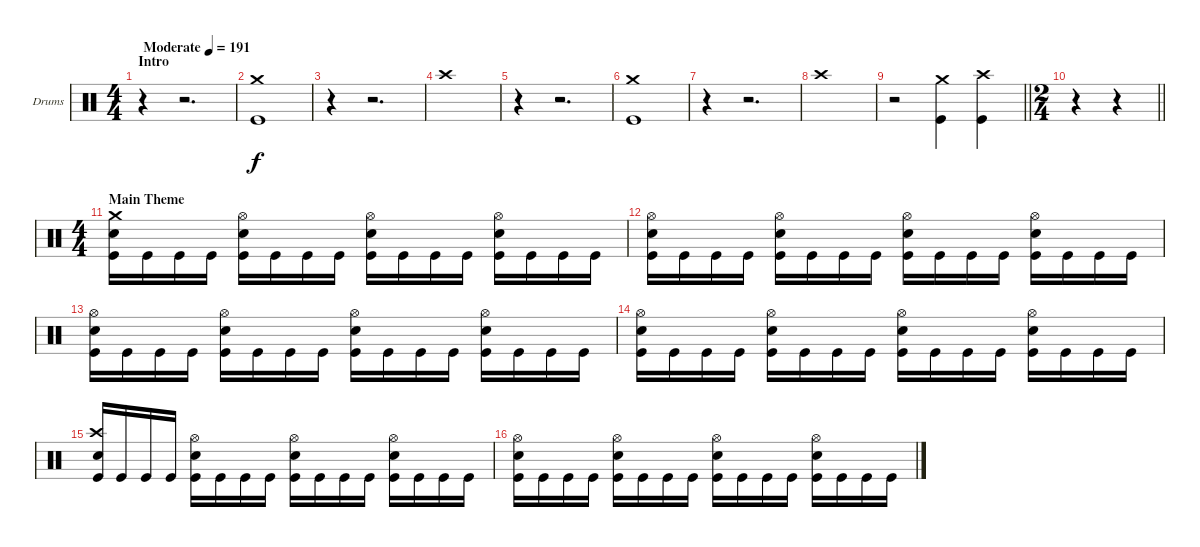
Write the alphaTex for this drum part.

\bracketExtendMode groupsimilarinstruments
\firstSystemTrackNameOrientation horizontal
\otherSystemsTrackNameOrientation horizontal
\track ("Drumkit" "Drums") {instrument percussion}
\staff {score}
\articulation defaults
\ts (4 4)
\beaming (8 2 2 2 2)
\section ("" "Intro")
\tempo (191 "Moderate")
\clef neutral
\ks c
r.4{dy f} r.2{d} |
("Crash medium (hit)" "Kick (hit)").1 |
r.4 r.2{d} |
"Crash high (hit)".1 |
r.4 r.2{d} |
("Crash medium (hit)" "Kick (hit)").1 |
r.4 r.2{d} |
"Crash high (hit)".1 |
\barLineRight lightlight
r.2 ("Crash medium (hit)" "Kick (hit)").4 ("Crash high (hit)" "Kick (hit)").4 |
\ts (2 4)
\beaming (8 2 2)
\barLineRight lightlight
r.4 r.4 |
\ts (4 4)
\beaming (8 2 2 2 2)
\section ("" "Main Theme")
("Crash medium (hit)" "Snare (hit) 2" "Kick (hit)").16 "Kick (hit)".16 "Kick (hit)".16 "Kick (hit)".16 ("Hi-Hat (open)" "Snare (hit) 2" "Kick (hit)").16 "Kick (hit)".16 "Kick (hit)".16 "Kick (hit)".16 ("Hi-Hat (open)" "Snare (hit) 2" "Kick (hit)").16 "Kick (hit)".16 "Kick (hit)".16 "Kick (hit)".16 ("Hi-Hat (open)" "Snare (hit) 2" "Kick (hit)").16 "Kick (hit)".16 "Kick (hit)".16 "Kick (hit)".16 |
("Hi-Hat (open)" "Snare (hit) 2" "Kick (hit)").16 "Kick (hit)".16 "Kick (hit)".16 "Kick (hit)".16 ("Hi-Hat (open)" "Snare (hit) 2" "Kick (hit)").16 "Kick (hit)".16 "Kick (hit)".16 "Kick (hit)".16 ("Hi-Hat (open)" "Snare (hit) 2" "Kick (hit)").16 "Kick (hit)".16 "Kick (hit)".16 "Kick (hit)".16 ("Hi-Hat (open)" "Snare (hit) 2" "Kick (hit)").16 "Kick (hit)".16 "Kick (hit)".16 "Kick (hit)".16 |
("Hi-Hat (open)" "Snare (hit) 2" "Kick (hit)").16 "Kick (hit)".16 "Kick (hit)".16 "Kick (hit)".16 ("Hi-Hat (open)" "Snare (hit) 2" "Kick (hit)").16 "Kick (hit)".16 "Kick (hit)".16 "Kick (hit)".16 ("Hi-Hat (open)" "Snare (hit) 2" "Kick (hit)").16 "Kick (hit)".16 "Kick (hit)".16 "Kick (hit)".16 ("Hi-Hat (open)" "Snare (hit) 2" "Kick (hit)").16 "Kick (hit)".16 "Kick (hit)".16 "Kick (hit)".16 |
("Hi-Hat (open)" "Snare (hit) 2" "Kick (hit)").16 "Kick (hit)".16 "Kick (hit)".16 "Kick (hit)".16 ("Hi-Hat (open)" "Snare (hit) 2" "Kick (hit)").16 "Kick (hit)".16 "Kick (hit)".16 "Kick (hit)".16 ("Hi-Hat (open)" "Snare (hit) 2" "Kick (hit)").16 "Kick (hit)".16 "Kick (hit)".16 "Kick (hit)".16 ("Hi-Hat (open)" "Snare (hit) 2" "Kick (hit)").16 "Kick (hit)".16 "Kick (hit)".16 "Kick (hit)".16 |
("Crash high (hit)" "Snare (hit) 2" "Kick (hit)").16 "Kick (hit)".16 "Kick (hit)".16 "Kick (hit)".16 ("Hi-Hat (open)" "Snare (hit) 2" "Kick (hit)").16 "Kick (hit)".16 "Kick (hit)".16 "Kick (hit)".16 ("Hi-Hat (open)" "Snare (hit) 2" "Kick (hit)").16 "Kick (hit)".16 "Kick (hit)".16 "Kick (hit)".16 ("Hi-Hat (open)" "Snare (hit) 2" "Kick (hit)").16 "Kick (hit)".16 "Kick (hit)".16 "Kick (hit)".16 |
("Hi-Hat (open)" "Snare (hit) 2" "Kick (hit)").16 "Kick (hit)".16 "Kick (hit)".16 "Kick (hit)".16 ("Hi-Hat (open)" "Snare (hit) 2" "Kick (hit)").16 "Kick (hit)".16 "Kick (hit)".16 "Kick (hit)".16 ("Hi-Hat (open)" "Snare (hit) 2" "Kick (hit)").16 "Kick (hit)".16 "Kick (hit)".16 "Kick (hit)".16 ("Hi-Hat (open)" "Snare (hit) 2" "Kick (hit)").16 "Kick (hit)".16 "Kick (hit)".16 "Kick (hit)".16
